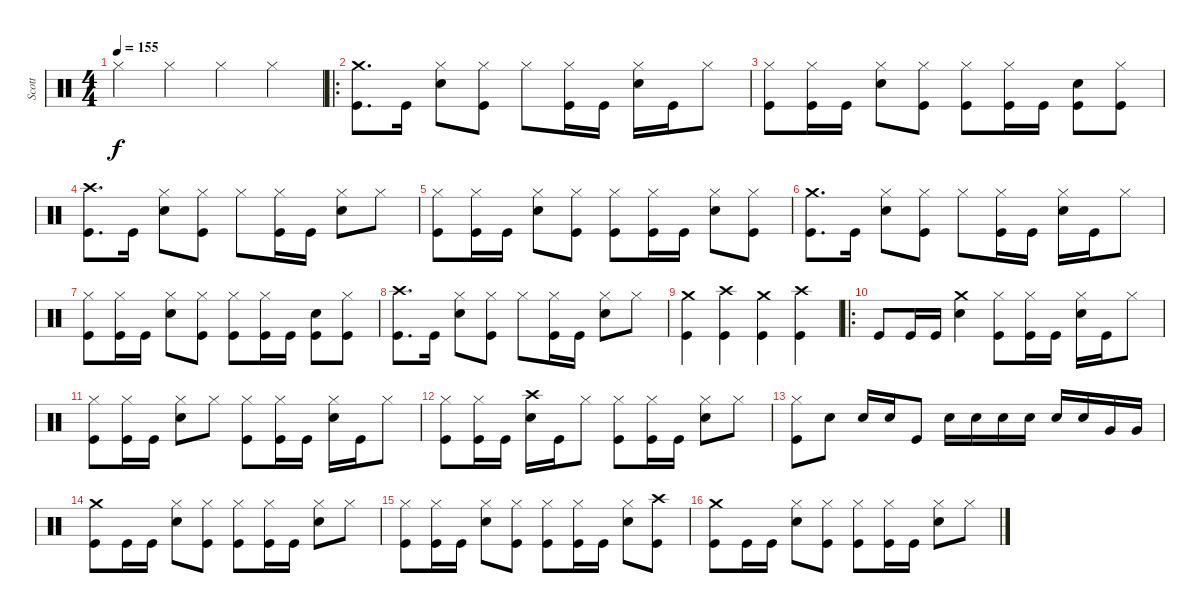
\track ("Scott" "Scott") {instrument percussion}
\staff {score}
\articulation defaults
\ts (4 4)
\tempo 155
\clef neutral
\ks c "Hi-Hat (closed)".4{dy f} "Hi-Hat (closed)".4 "Hi-Hat (closed)".4 "Hi-Hat (closed)".4
|
\ro
("Kick (hit)" "Crash medium (hit)").8{d} "Kick (hit)".16 ("Snare (hit) 2" "Hi-Hat (closed)").8 ("Kick (hit)" "Hi-Hat (closed)").8 "Hi-Hat (closed)".8 ("Kick (hit)" "Hi-Hat (closed)").16 "Kick (hit)".16 ("Snare (hit) 2" "Hi-Hat (closed)").16 "Kick (hit)".16 "Hi-Hat (closed)".8 |
("Kick (hit)" "Hi-Hat (closed)").8 ("Kick (hit)" "Hi-Hat (closed)").16 "Kick (hit)".16 ("Snare (hit) 2" "Hi-Hat (closed)").8 ("Kick (hit)" "Hi-Hat (closed)").8 ("Kick (hit)" "Hi-Hat (closed)").8 ("Kick (hit)" "Hi-Hat (closed)").16 "Kick (hit)".16 ("Kick (hit)" "Snare (hit) 2").8 ("Kick (hit)" "Hi-Hat (closed)").8 |
("Kick (hit)" "Crash high (hit)").8{d} "Kick (hit)".16 ("Snare (hit) 2" "Hi-Hat (closed)").8 ("Kick (hit)" "Hi-Hat (closed)").8 "Hi-Hat (closed)".8 ("Kick (hit)" "Hi-Hat (closed)").16 "Kick (hit)".16 ("Snare (hit) 2" "Hi-Hat (closed)").8 "Hi-Hat (closed)".8 |
("Kick (hit)" "Hi-Hat (closed)").8 ("Kick (hit)" "Hi-Hat (closed)").16 "Kick (hit)".16 ("Snare (hit) 2" "Hi-Hat (closed)").8 ("Kick (hit)" "Hi-Hat (closed)").8 ("Kick (hit)" "Hi-Hat (closed)").8 ("Kick (hit)" "Hi-Hat (closed)").16 "Kick (hit)".16 ("Snare (hit) 2" "Hi-Hat (closed)").8 ("Kick (hit)" "Hi-Hat (closed)").8 |
("Kick (hit)" "Crash medium (hit)").8{d} "Kick (hit)".16 ("Snare (hit) 2" "Hi-Hat (closed)").8 ("Kick (hit)" "Hi-Hat (closed)").8 "Hi-Hat (closed)".8 ("Kick (hit)" "Hi-Hat (closed)").16 "Kick (hit)".16 ("Snare (hit) 2" "Hi-Hat (closed)").16 "Kick (hit)".16 "Hi-Hat (closed)".8 |
("Kick (hit)" "Hi-Hat (closed)").8 ("Kick (hit)" "Hi-Hat (closed)").16 "Kick (hit)".16 ("Snare (hit) 2" "Hi-Hat (closed)").8 ("Kick (hit)" "Hi-Hat (closed)").8 ("Kick (hit)" "Hi-Hat (closed)").8 ("Kick (hit)" "Hi-Hat (closed)").16 "Kick (hit)".16 ("Kick (hit)" "Snare (hit) 2").8 ("Kick (hit)" "Hi-Hat (closed)").8 |
("Kick (hit)" "Crash high (hit)").8{d} "Kick (hit)".16 ("Snare (hit) 2" "Hi-Hat (closed)").8 ("Kick (hit)" "Hi-Hat (closed)").8 "Hi-Hat (closed)".8 ("Kick (hit)" "Hi-Hat (closed)").16 "Kick (hit)".16 ("Snare (hit) 2" "Hi-Hat (closed)").8 "Hi-Hat (closed)".8 |
("Kick (hit)" "Crash medium (hit)").4 ("Kick (hit)" "Crash high (hit)").4 ("Kick (hit)" "Crash medium (hit)").4 ("Kick (hit)" "Crash high (hit)").4 |
\ro "Kick (hit)".8 "Kick (hit)".16 "Kick (hit)".16
("Snare (hit) 2" "Crash medium (hit)").4 ("Kick (hit)" "Hi-Hat (closed)").8 ("Kick (hit)" "Hi-Hat (closed)").16 "Kick (hit)".16 ("Snare (hit) 2" "Hi-Hat (closed)").16 "Kick (hit)".16 "Hi-Hat (closed)".8 |
("Kick (hit)" "Hi-Hat (closed)").8 ("Kick (hit)" "Hi-Hat (closed)").16 "Kick (hit)".16 ("Snare (hit) 2" "Hi-Hat (closed)").8 "Hi-Hat (closed)".8 ("Kick (hit)" "Hi-Hat (closed)").8 ("Kick (hit)" "Hi-Hat (closed)").16 "Kick (hit)".16 ("Snare (hit) 2" "Hi-Hat (closed)").16 "Kick (hit)".16 "Hi-Hat (closed)".8 |
("Kick (hit)" "Hi-Hat (closed)").8 ("Kick (hit)" "Hi-Hat (closed)").16 "Kick (hit)".16 ("Snare (hit) 2" "Crash high (hit)").16 "Kick (hit)".16 "Hi-Hat (closed)".8 ("Kick (hit)" "Hi-Hat (closed)").8 ("Kick (hit)" "Hi-Hat (closed)").16 "Kick (hit)".16 ("Snare (hit) 2" "Hi-Hat (closed)").8 "Hi-Hat (closed)".8 |
("Kick (hit)" "Hi-Hat (closed)").8 "Snare (hit) 2".8 "Snare (hit) 2".16 "Snare (hit) 2".16 "Kick (hit)".8 "Snare (hit) 2".16 "Snare (hit) 2".16 "Snare (hit) 2".16 "Snare (hit) 2".16 "Snare (hit) 2".16 "Snare (hit) 2".16 "Very Low Tom (hit)".16 "Very Low Tom (hit)".16 |
("Kick (hit)" "Crash medium (hit)").8 "Kick (hit)".16 "Kick (hit)".16 ("Snare (hit) 2" "Hi-Hat (closed)").8 ("Kick (hit)" "Hi-Hat (closed)").8 ("Kick (hit)" "Hi-Hat (closed)").8 ("Kick (hit)" "Hi-Hat (closed)").16 "Kick (hit)".16 ("Snare (hit) 2" "Hi-Hat (closed)").8 "Hi-Hat (closed)".8 |
("Kick (hit)" "Hi-Hat (closed)").8 ("Kick (hit)" "Hi-Hat (closed)").16 "Kick (hit)".16 ("Snare (hit) 2" "Hi-Hat (closed)").8 ("Kick (hit)" "Hi-Hat (closed)").8 ("Kick (hit)" "Hi-Hat (closed)").8 ("Kick (hit)" "Hi-Hat (closed)").16 "Kick (hit)".16 ("Snare (hit) 2" "Hi-Hat (closed)").8 ("Kick (hit)" "Crash high (hit)").8 |
("Kick (hit)" "Crash medium (hit)").8 "Kick (hit)".16 "Kick (hit)".16 ("Snare (hit) 2" "Hi-Hat (closed)").8 ("Kick (hit)" "Hi-Hat (closed)").8 ("Kick (hit)" "Hi-Hat (closed)").8 ("Kick (hit)" "Hi-Hat (closed)").16 "Kick (hit)".16 ("Snare (hit) 2" "Hi-Hat (closed)").8 "Hi-Hat (closed)".8
